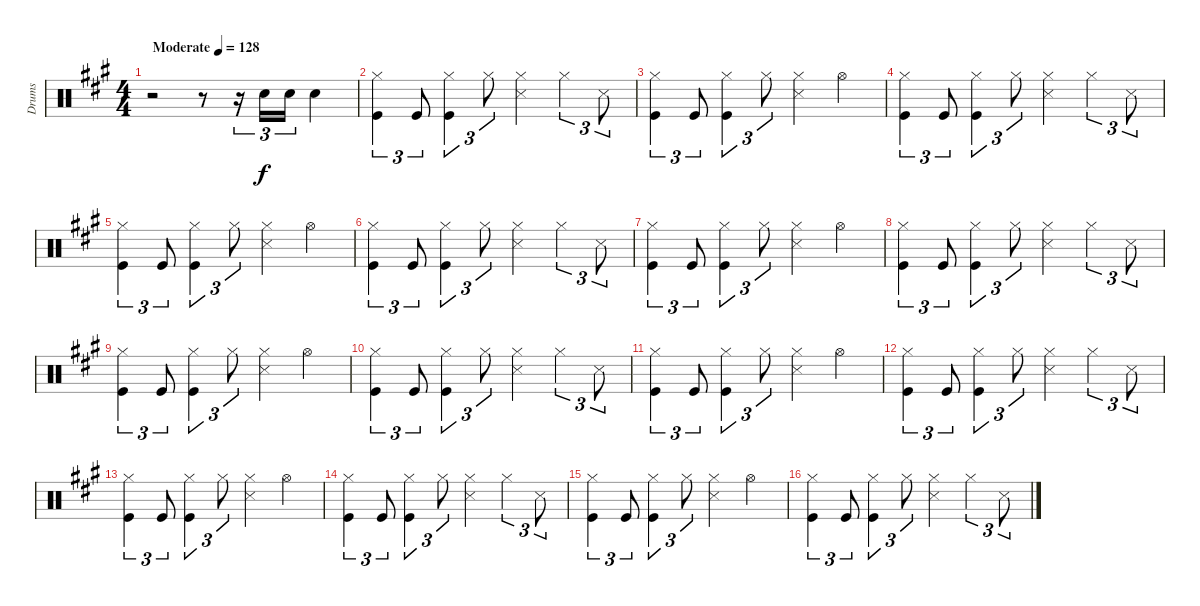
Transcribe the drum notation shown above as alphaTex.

\track ("Drums" "Drums") {instrument percussion}
\staff {score}
\articulation defaults
\ts (4 4)
\tempo (128 "Moderate")
\clef neutral
\ks a
r.2{dy f} r.8 r.16{tu (3 2)} "Snare (hit) 2".16{tu (3 2)} "Snare (hit) 2".16{tu (3 2)} "Snare (hit) 2".4 |
("Hi-Hat (closed)" "Kick (hit)").4{tu (3 2)} "Kick (hit)".8{tu (3 2)} ("Hi-Hat (closed)" "Kick (hit)").4{tu (3 2)} "Hi-Hat (closed)".8{tu (3 2)} ("Hi-Hat (closed)" "Snare (side stick) 3").4 "Hi-Hat (closed)".4{tu (3 2)} "Snare (side stick) 3".8{tu (3 2)} |
("Hi-Hat (closed)" "Kick (hit)").4{tu (3 2)} "Kick (hit)".8{tu (3 2)} ("Hi-Hat (closed)" "Kick (hit)").4{tu (3 2)} "Hi-Hat (closed)".8{tu (3 2)} ("Hi-Hat (closed)" "Snare (side stick) 3").4 "Hi-Hat (open)".4 |
("Hi-Hat (closed)" "Kick (hit)").4{tu (3 2)} "Kick (hit)".8{tu (3 2)} ("Hi-Hat (closed)" "Kick (hit)").4{tu (3 2)} "Hi-Hat (closed)".8{tu (3 2)} ("Hi-Hat (closed)" "Snare (side stick) 3").4 "Hi-Hat (closed)".4{tu (3 2)} "Snare (side stick) 3".8{tu (3 2)} |
("Hi-Hat (closed)" "Kick (hit)").4{tu (3 2)} "Kick (hit)".8{tu (3 2)} ("Hi-Hat (closed)" "Kick (hit)").4{tu (3 2)} "Hi-Hat (closed)".8{tu (3 2)} ("Hi-Hat (closed)" "Snare (side stick) 3").4 "Hi-Hat (open)".4 |
("Hi-Hat (closed)" "Kick (hit)").4{tu (3 2)} "Kick (hit)".8{tu (3 2)} ("Hi-Hat (closed)" "Kick (hit)").4{tu (3 2)} "Hi-Hat (closed)".8{tu (3 2)} ("Hi-Hat (closed)" "Snare (side stick) 3").4 "Hi-Hat (closed)".4{tu (3 2)} "Snare (side stick) 3".8{tu (3 2)} |
("Hi-Hat (closed)" "Kick (hit)").4{tu (3 2)} "Kick (hit)".8{tu (3 2)} ("Hi-Hat (closed)" "Kick (hit)").4{tu (3 2)} "Hi-Hat (closed)".8{tu (3 2)} ("Hi-Hat (closed)" "Snare (side stick) 3").4 "Hi-Hat (open)".4 |
("Hi-Hat (closed)" "Kick (hit)").4{tu (3 2)} "Kick (hit)".8{tu (3 2)} ("Hi-Hat (closed)" "Kick (hit)").4{tu (3 2)} "Hi-Hat (closed)".8{tu (3 2)} ("Hi-Hat (closed)" "Snare (side stick) 3").4 "Hi-Hat (closed)".4{tu (3 2)} "Snare (side stick) 3".8{tu (3 2)} |
("Hi-Hat (closed)" "Kick (hit)").4{tu (3 2)} "Kick (hit)".8{tu (3 2)} ("Hi-Hat (closed)" "Kick (hit)").4{tu (3 2)} "Hi-Hat (closed)".8{tu (3 2)} ("Hi-Hat (closed)" "Snare (side stick) 3").4 "Hi-Hat (open)".4 |
("Hi-Hat (closed)" "Kick (hit)").4{tu (3 2)} "Kick (hit)".8{tu (3 2)} ("Hi-Hat (closed)" "Kick (hit)").4{tu (3 2)} "Hi-Hat (closed)".8{tu (3 2)} ("Hi-Hat (closed)" "Snare (side stick) 3").4 "Hi-Hat (closed)".4{tu (3 2)} "Snare (side stick) 3".8{tu (3 2)} |
("Hi-Hat (closed)" "Kick (hit)").4{tu (3 2)} "Kick (hit)".8{tu (3 2)} ("Hi-Hat (closed)" "Kick (hit)").4{tu (3 2)} "Hi-Hat (closed)".8{tu (3 2)} ("Hi-Hat (closed)" "Snare (side stick) 3").4 "Hi-Hat (open)".4 |
("Hi-Hat (closed)" "Kick (hit)").4{tu (3 2)} "Kick (hit)".8{tu (3 2)} ("Hi-Hat (closed)" "Kick (hit)").4{tu (3 2)} "Hi-Hat (closed)".8{tu (3 2)} ("Hi-Hat (closed)" "Snare (side stick) 3").4 "Hi-Hat (closed)".4{tu (3 2)} "Snare (side stick) 3".8{tu (3 2)} |
("Hi-Hat (closed)" "Kick (hit)").4{tu (3 2)} "Kick (hit)".8{tu (3 2)} ("Hi-Hat (closed)" "Kick (hit)").4{tu (3 2)} "Hi-Hat (closed)".8{tu (3 2)} ("Hi-Hat (closed)" "Snare (side stick) 3").4 "Hi-Hat (open)".4 |
("Hi-Hat (closed)" "Kick (hit)").4{tu (3 2)} "Kick (hit)".8{tu (3 2)} ("Hi-Hat (closed)" "Kick (hit)").4{tu (3 2)} "Hi-Hat (closed)".8{tu (3 2)} ("Hi-Hat (closed)" "Snare (side stick) 3").4 "Hi-Hat (closed)".4{tu (3 2)} "Snare (side stick) 3".8{tu (3 2)} |
("Hi-Hat (closed)" "Kick (hit)").4{tu (3 2)} "Kick (hit)".8{tu (3 2)} ("Hi-Hat (closed)" "Kick (hit)").4{tu (3 2)} "Hi-Hat (closed)".8{tu (3 2)} ("Hi-Hat (closed)" "Snare (side stick) 3").4 "Hi-Hat (open)".4 |
("Hi-Hat (closed)" "Kick (hit)").4{tu (3 2)} "Kick (hit)".8{tu (3 2)} ("Hi-Hat (closed)" "Kick (hit)").4{tu (3 2)} "Hi-Hat (closed)".8{tu (3 2)} ("Hi-Hat (closed)" "Snare (side stick) 3").4 "Hi-Hat (closed)".4{tu (3 2)} "Snare (side stick) 3".8{tu (3 2)}
